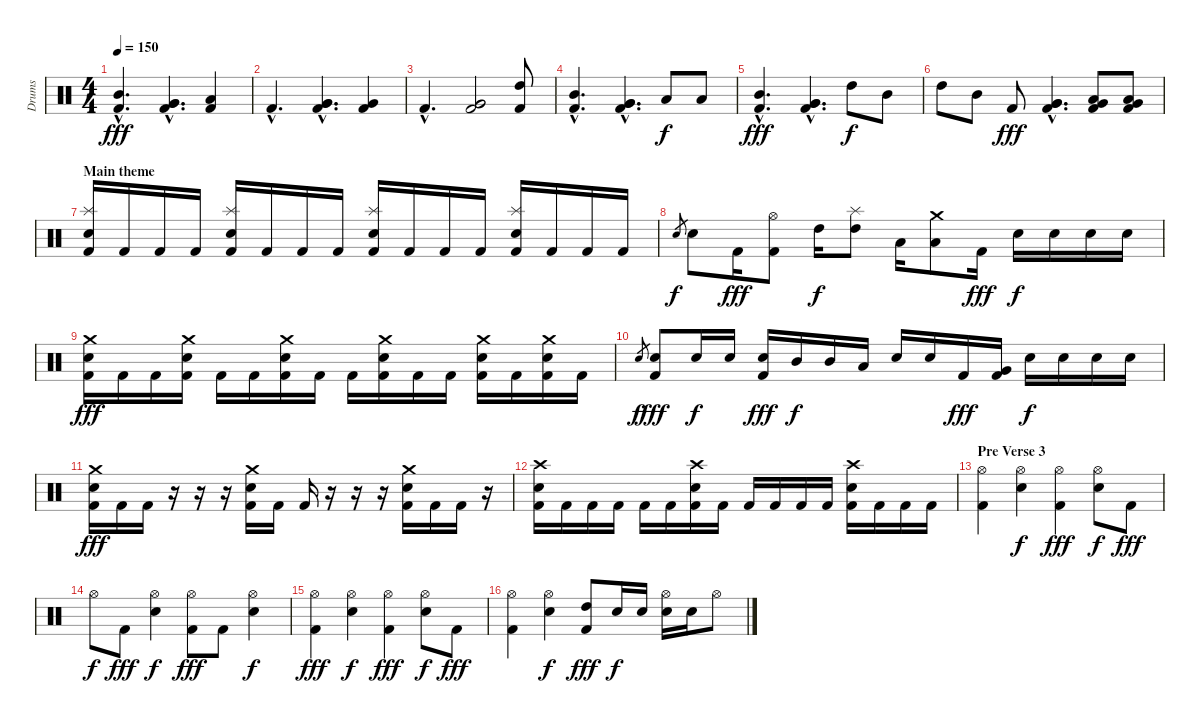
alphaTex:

\track ("Drums" "Drums") {instrument percussion}
\staff {score}
\articulation defaults
\ts (4 4)
\tempo 150
\clef neutral
\ks c
("Mid Tom (hit)"{hac} "Kick (hit) 2"{hac}).4{d dy fff} ("Very Low Tom (hit)"{hac} "Very Low Tom (hit)"{hac} "Kick (hit) 2"{hac}).4{d} ("Low Tom (hit)" "Kick (hit) 2").4 |
"Kick (hit) 2"{hac}.4{d} ("Very Low Tom (hit)"{hac} "Very Low Tom (hit)"{hac} "Kick (hit) 2"{hac}).4{d} ("Very Low Tom (hit)" "Kick (hit) 2").4 |
"Kick (hit) 2"{hac}.4{d} ("Very Low Tom (hit)" "Very Low Tom (hit)" "Kick (hit) 2").2 ("High Tom (hit)" "Kick (hit) 2").8 |
("Mid Tom (hit)"{hac} "Kick (hit) 2"{hac}).4{d} ("Very Low Tom (hit)"{hac} "Very Low Tom (hit)"{hac} "Kick (hit) 2"{hac}).4{d} "Low Tom (hit)".8{dy f} "Low Floor Tom (hit)".8 |
("Mid Tom (hit)"{hac} "Kick (hit) 2"{hac}).4{d bd 240 dy fff} ("Very Low Tom (hit)"{hac} "Very Low Tom (hit)"{hac} "Kick (hit) 2"{hac}).4{d} "High Tom (hit)".8{dy f} "Mid Tom (hit)".8 |
"High Tom (hit)".8 "Mid Tom (hit)".8 "Kick (hit) 2".8{dy fff} ("Very Low Tom (hit)"{hac} "Very Low Tom (hit)"{hac} "Kick (hit) 2"{hac}).4{d} ("Very Low Tom (hit)" "Low Floor Tom (hit)" "Kick (hit) 2").8 ("Very Low Tom (hit)" "Low Floor Tom (hit)" "Kick (hit) 2").8 |
\section ("" "Main theme")
("Splash (hit)" "Electric Snare (hit)" "Kick (hit) 2").16 "Kick (hit) 2".16 "Kick (hit) 2".16 "Kick (hit) 2".16 ("Splash (hit)" "Electric Snare (hit)" "Kick (hit) 2").16 "Kick (hit) 2".16 "Kick (hit) 2".16 "Kick (hit) 2".16 ("Splash (hit)" "Electric Snare (hit)" "Kick (hit) 2").16 "Kick (hit) 2".16 "Kick (hit) 2".16 "Kick (hit) 2".16 ("Splash (hit)" "Electric Snare (hit)" "Kick (hit) 2").16 "Kick (hit) 2".16 "Kick (hit) 2".16 "Kick (hit) 2".16 |
"Electric Snare (hit)".8{gr dy f} "Electric Snare (hit)".8 "Kick (hit) 2".16{dy fff} ("Hi-Hat (open)" "Kick (hit) 2").8 "High Tom (hit)".16{dy f} ("Splash (hit)" "High Tom (hit)").8 "Low Tom (hit)".16 ("Crash medium (hit)" "Low Tom (hit)").8 "Kick (hit) 2".16{dy fff} "Electric Snare (hit)".16{dy f} "Electric Snare (hit)".16 "Electric Snare (hit)".16 "Electric Snare (hit)".16 |
("Crash medium (hit)" "Electric Snare (hit)" "Kick (hit) 2").16{dy fff} "Kick (hit) 2".16 "Kick (hit) 2".16 ("Crash medium (hit)" "Electric Snare (hit)" "Kick (hit) 2").16 "Kick (hit) 2".16 "Kick (hit) 2".16 ("Crash medium (hit)" "Electric Snare (hit)" "Kick (hit) 2").16 "Kick (hit) 2".16 "Kick (hit) 2".16 ("Crash medium (hit)" "Electric Snare (hit)" "Kick (hit) 2").16 "Kick (hit) 2".16 "Kick (hit) 2".16 ("Crash medium (hit)" "Electric Snare (hit)" "Kick (hit) 2").16 "Kick (hit) 2".16 ("Crash medium (hit)" "Electric Snare (hit)" "Kick (hit) 2").16 "Kick (hit) 2".16 |
"Electric Snare (hit)".8{gr dy f} ("Electric Snare (hit)" "Kick (hit) 2").8{dy fff} "Electric Snare (hit)".16{dy f} "Electric Snare (hit)".16 ("Electric Snare (hit)" "Kick (hit) 2").16{dy fff} "Mid Tom (hit)".16{dy f} "Mid Tom (hit)".16 "Low Tom (hit)".16 "Electric Snare (hit)".16 "Electric Snare (hit)".16 "Kick (hit) 2".16{dy fff} ("Very Low Tom (hit)" "Kick (hit) 2").16 "Electric Snare (hit)".16{dy f} "Electric Snare (hit)".16 "Electric Snare (hit)".16 "Electric Snare (hit)".16 |
("Crash medium (hit)" "Electric Snare (hit)" "Kick (hit) 2").16{dy fff} "Kick (hit) 2".16 "Kick (hit) 2".16 r.16 r.16 r.16 ("Crash medium (hit)" "Electric Snare (hit)" "Kick (hit) 2").16 "Kick (hit) 2".16 "Kick (hit) 2".16 r.16 r.16 r.16 ("Crash medium (hit)" "Electric Snare (hit)" "Kick (hit) 2").16 "Kick (hit) 2".16 "Kick (hit) 2".16 r.16 |
("Crash high (hit)" "Electric Snare (hit)" "Kick (hit) 2").16 "Kick (hit) 2".16 "Kick (hit) 2".16 "Kick (hit) 2".16 "Kick (hit) 2".16 "Kick (hit) 2".16 ("Crash high (hit)" "Electric Snare (hit)" "Kick (hit) 2").16 "Kick (hit) 2".16 "Kick (hit) 2".16 "Kick (hit) 2".16 "Kick (hit) 2".16 "Kick (hit) 2".16 ("Crash high (hit)" "Electric Snare (hit)" "Kick (hit) 2").16 "Kick (hit) 2".16 "Kick (hit) 2".16 "Kick (hit) 2".16 |
\section ("" "Pre Verse 3")
("Hi-Hat (open)" "Kick (hit) 2").4 ("Hi-Hat (open)" "Electric Snare (hit)").4{dy f} ("Hi-Hat (open)" "Kick (hit) 2").4{dy fff} ("Hi-Hat (open)" "Electric Snare (hit)").8{dy f} "Kick (hit) 2".8{dy fff} |
"Hi-Hat (open)".8{dy f} "Kick (hit) 2".8{dy fff} ("Hi-Hat (open)" "Electric Snare (hit)").4{dy f} ("Hi-Hat (open)" "Kick (hit) 2").8{dy fff} "Kick (hit) 2".8 ("Hi-Hat (open)" "Electric Snare (hit)").4{dy f} |
("Hi-Hat (open)" "Kick (hit) 2").4{dy fff} ("Hi-Hat (open)" "Electric Snare (hit)").4{dy f} ("Hi-Hat (open)" "Kick (hit) 2").4{dy fff} ("Hi-Hat (open)" "Electric Snare (hit)").8{dy f} "Kick (hit) 2".8{dy fff} |
("Hi-Hat (open)" "Kick (hit) 2").4 ("Hi-Hat (open)" "Electric Snare (hit)").4{dy f} ("High Tom (hit)" "Kick (hit) 2").8{dy fff} "Electric Snare (hit)".16{dy f} "Electric Snare (hit)".16 ("Hi-Hat (open)" "Electric Snare (hit)").16 "Electric Snare (hit)".16 "Hi-Hat (open)".8
